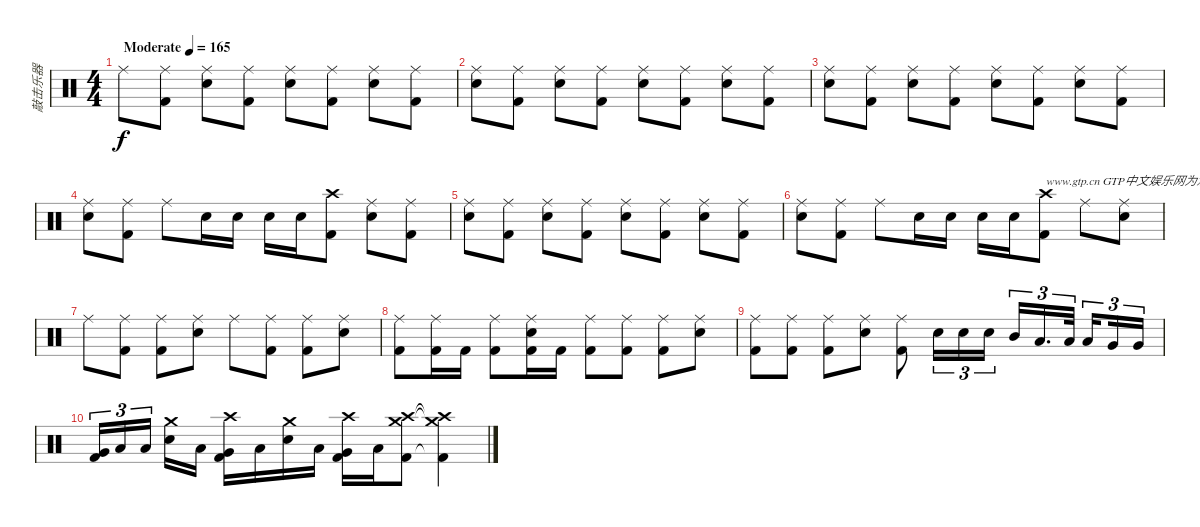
\track ("敲击乐器" "敲击乐器") {instrument percussion}
\staff {score}
\articulation defaults
\ts (4 4)
\tempo (165 "Moderate")
\clef neutral
\ks c "Ride (middle)".8{dy f}
("Ride (middle)" "Kick (hit) 2").8 ("Ride (middle)" "Electric Snare (hit)").8 ("Ride (middle)" "Kick (hit) 2").8 ("Ride (middle)" "Electric Snare (hit)").8 ("Ride (middle)" "Kick (hit) 2").8 ("Ride (middle)" "Electric Snare (hit)").8 ("Ride (middle)" "Kick (hit) 2").8 |
("Ride (middle)" "Electric Snare (hit)").8 ("Ride (middle)" "Kick (hit) 2").8 ("Ride (middle)" "Electric Snare (hit)").8 ("Ride (middle)" "Kick (hit) 2").8 ("Ride (middle)" "Electric Snare (hit)").8 ("Ride (middle)" "Kick (hit) 2").8 ("Ride (middle)" "Electric Snare (hit)").8 ("Ride (middle)" "Kick (hit) 2").8 |
("Ride (middle)" "Electric Snare (hit)").8 ("Ride (middle)" "Kick (hit) 2").8 ("Ride (middle)" "Electric Snare (hit)").8 ("Ride (middle)" "Kick (hit) 2").8 ("Ride (middle)" "Electric Snare (hit)").8 ("Ride (middle)" "Kick (hit) 2").8 ("Ride (middle)" "Electric Snare (hit)").8 ("Ride (middle)" "Kick (hit) 2").8 |
("Ride (middle)" "Electric Snare (hit)").8 ("Ride (middle)" "Kick (hit) 2").8 "Ride (middle)".8 "Electric Snare (hit)".16 "Electric Snare (hit)".16 "Electric Snare (hit)".16 "Electric Snare (hit)".16 ("Crash high (hit)" "Kick (hit) 2").8 ("Ride (middle)" "Electric Snare (hit)").8 ("Ride (middle)" "Kick (hit) 2").8 |
("Ride (middle)" "Electric Snare (hit)").8 ("Ride (middle)" "Kick (hit) 2").8 ("Ride (middle)" "Electric Snare (hit)").8 ("Ride (middle)" "Kick (hit) 2").8 ("Ride (middle)" "Electric Snare (hit)").8 ("Ride (middle)" "Kick (hit) 2").8 ("Ride (middle)" "Electric Snare (hit)").8 ("Ride (middle)" "Kick (hit) 2").8 |
("Ride (middle)" "Electric Snare (hit)").8 ("Ride (middle)" "Kick (hit) 2").8 "Ride (middle)".8 "Electric Snare (hit)".16 "Electric Snare (hit)".16 "Electric Snare (hit)".16 "Electric Snare (hit)".16 ("Crash high (hit)" "Kick (hit) 2").8{txt "www.gtp.cn GTP中文娱乐网为您提供优秀的谱子"} "Ride (middle)".8 ("Ride (middle)" "Electric Snare (hit)").8 |
"Ride (middle)".8 ("Ride (middle)" "Kick (hit) 2").8 ("Ride (middle)" "Kick (hit) 2").8 ("Ride (middle)" "Electric Snare (hit)").8 "Ride (middle)".8 ("Ride (middle)" "Kick (hit) 2").8 ("Ride (middle)" "Kick (hit) 2").8 ("Ride (middle)" "Electric Snare (hit)").8 |
("Ride (middle)" "Kick (hit) 2").8 ("Ride (middle)" "Kick (hit) 2").16 "Kick (hit) 2".16 ("Ride (middle)" "Kick (hit) 2").8 ("Ride (middle)" "Electric Snare (hit)" "Kick (hit) 2").16 "Kick (hit) 2".16 ("Ride (middle)" "Kick (hit) 2").8 ("Ride (middle)" "Kick (hit) 2").8 ("Ride (middle)" "Kick (hit) 2").8 ("Ride (middle)" "Electric Snare (hit)").8 |
("Ride (middle)" "Kick (hit) 2").8 ("Ride (middle)" "Kick (hit) 2").8 ("Ride (middle)" "Kick (hit) 2").8 ("Ride (middle)" "Electric Snare (hit)").8 ("Ride (middle)" "Kick (hit) 2").8 "Electric Snare (hit)".16{tu (3 2)} "Electric Snare (hit)".16{tu (3 2)} "Electric Snare (hit)".16{tu (3 2)} "Mid Tom (hit)".16{tu (3 2)} "Low Tom (hit)".16{d tu (3 2)} "Low Tom (hit)".32{tu (3 2)} "Low Tom (hit)".16{tu (3 2) beam splitsecondary} "Very Low Tom (hit)".16{tu (3 2)} "Very Low Tom (hit)".16{tu (3 2)} |
("Very Low Tom (hit)" "Kick (hit) 2").16{tu (3 2)} "Low Floor Tom (hit)".16{tu (3 2)} "Low Floor Tom (hit)".16{tu (3 2) beam splitsecondary} ("Crash medium (hit)" "Electric Snare (hit)").16 "Low Tom (hit)".16 ("Crash high (hit)" "Very Low Tom (hit)" "Kick (hit) 2").16 "Low Floor Tom (hit)".16 ("Crash medium (hit)" "Electric Snare (hit)").16 "Low Tom (hit)".16 ("Crash high (hit)" "Very Low Tom (hit)" "Kick (hit) 2").16 "Low Floor Tom (hit)".16 ("Crash medium (hit)" "Crash high (hit)" "Kick (hit) 2").8 ("Crash medium (hit)"{t} "Crash high (hit)"{t} "Kick (hit) 2"{t}).4
